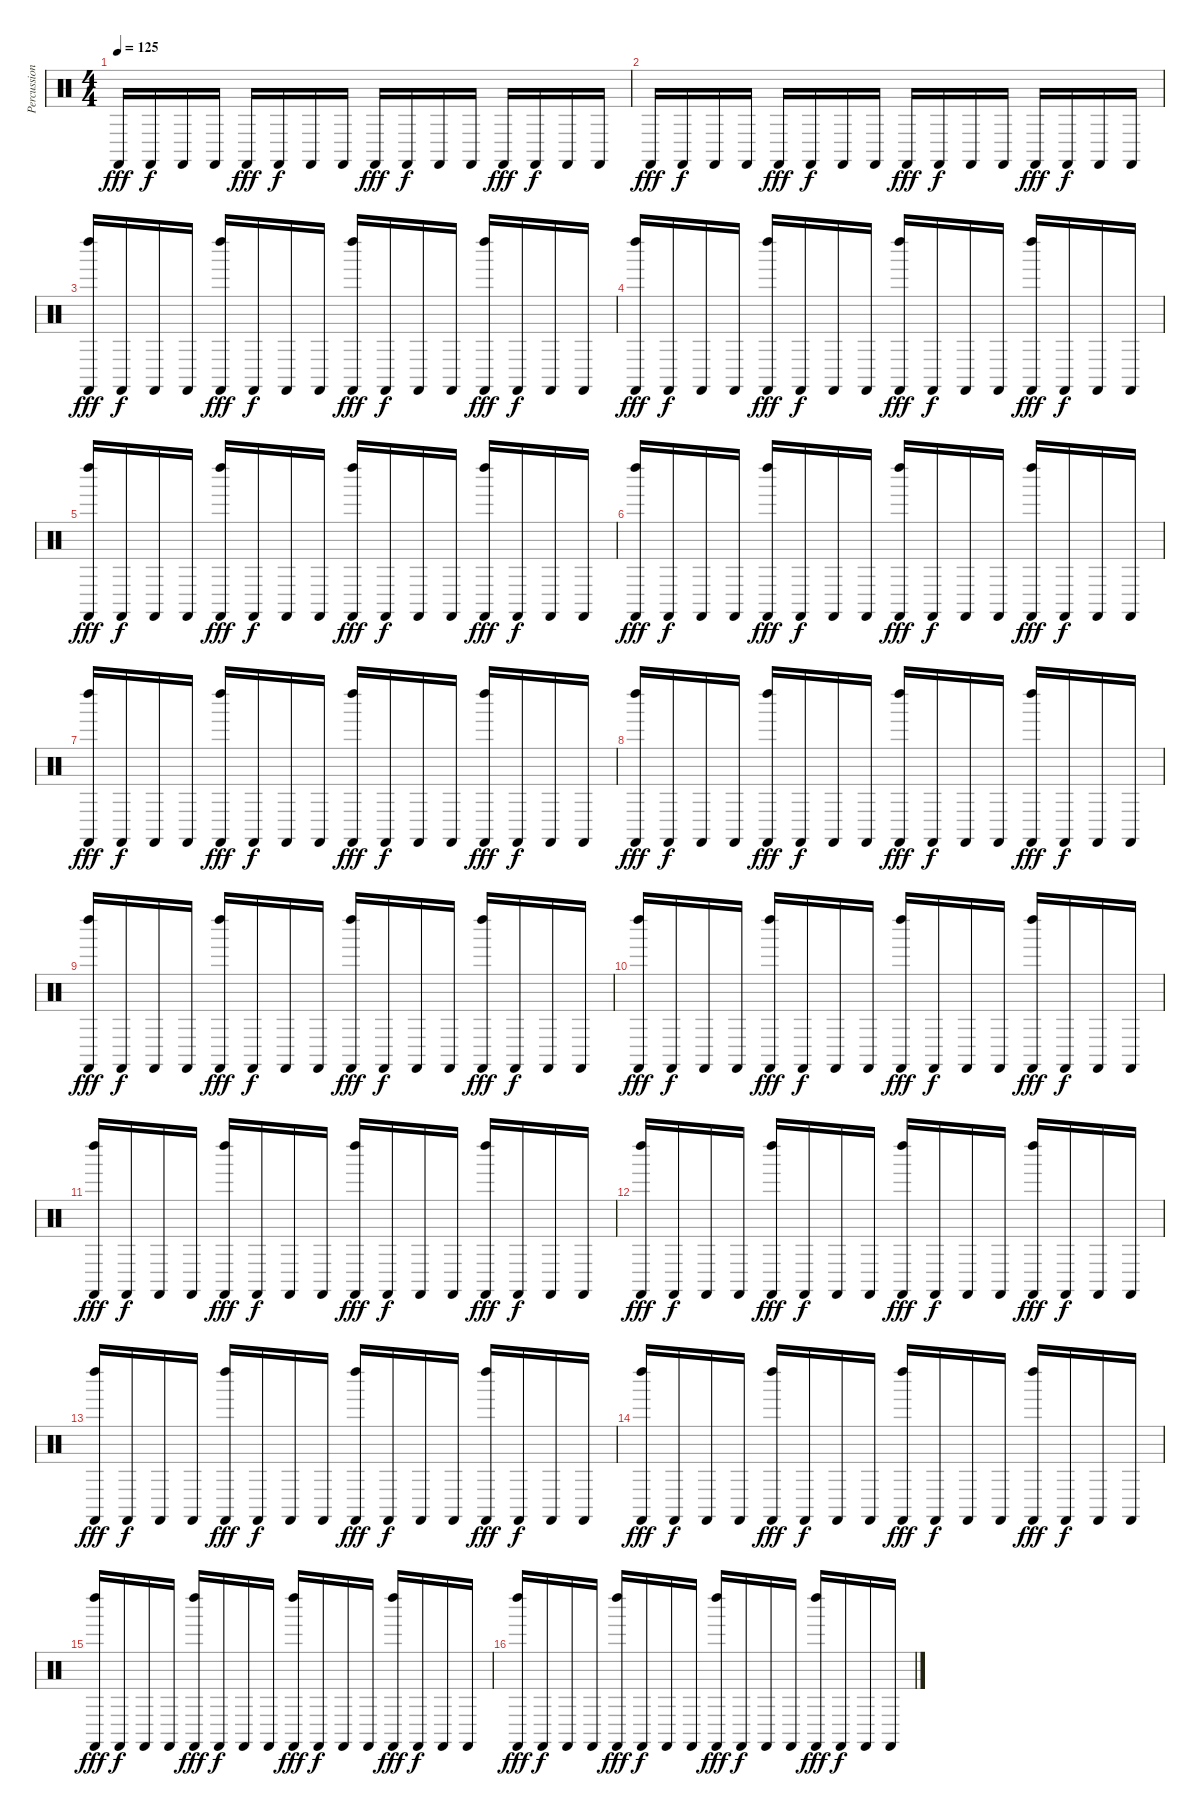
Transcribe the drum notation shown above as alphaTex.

\track ("Percussion Boris" "Percussion") {instrument percussion}
\staff {score}
\articulation defaults
\ts (4 4)
\tempo 125
\clef neutral
\ks c "Castanets (hit)".16{dy fff} "Castanets (hit)".16{dy f} "Castanets (hit)".16 "Castanets (hit)".16 "Castanets (hit)".16{dy fff} "Castanets (hit)".16{dy f} "Castanets (hit)".16 "Castanets (hit)".16 "Castanets (hit)".16{dy fff} "Castanets (hit)".16{dy f} "Castanets (hit)".16 "Castanets (hit)".16 "Castanets (hit)".16{dy fff} "Castanets (hit)".16{dy f} "Castanets (hit)".16 "Castanets (hit)".16
|
"Castanets (hit)".16{dy fff} "Castanets (hit)".16{dy f} "Castanets (hit)".16 "Castanets (hit)".16 "Castanets (hit)".16{dy fff} "Castanets (hit)".16{dy f} "Castanets (hit)".16 "Castanets (hit)".16 "Castanets (hit)".16{dy fff} "Castanets (hit)".16{dy f} "Castanets (hit)".16 "Castanets (hit)".16 "Castanets (hit)".16{dy fff} "Castanets (hit)".16{dy f} "Castanets (hit)".16 "Castanets (hit)".16 |
("Castanets (hit)" "Left Maraca (hit)").16{dy fff} "Castanets (hit)".16{dy f} "Castanets (hit)".16 "Castanets (hit)".16 ("Castanets (hit)" "Left Maraca (hit)").16{dy fff} "Castanets (hit)".16{dy f} "Castanets (hit)".16 "Castanets (hit)".16 ("Castanets (hit)" "Left Maraca (hit)").16{dy fff} "Castanets (hit)".16{dy f} "Castanets (hit)".16 "Castanets (hit)".16 ("Castanets (hit)" "Left Maraca (hit)").16{dy fff} "Castanets (hit)".16{dy f} "Castanets (hit)".16 "Castanets (hit)".16 |
("Castanets (hit)" "Left Maraca (hit)").16{dy fff} "Castanets (hit)".16{dy f} "Castanets (hit)".16 "Castanets (hit)".16 ("Castanets (hit)" "Left Maraca (hit)").16{dy fff} "Castanets (hit)".16{dy f} "Castanets (hit)".16 "Castanets (hit)".16 ("Castanets (hit)" "Left Maraca (hit)").16{dy fff} "Castanets (hit)".16{dy f} "Castanets (hit)".16 "Castanets (hit)".16 ("Castanets (hit)" "Left Maraca (hit)").16{dy fff} "Castanets (hit)".16{dy f} "Castanets (hit)".16 "Castanets (hit)".16 |
("Castanets (hit)" "Left Maraca (hit)").16{dy fff} "Castanets (hit)".16{dy f} "Castanets (hit)".16 "Castanets (hit)".16 ("Castanets (hit)" "Left Maraca (hit)").16{dy fff} "Castanets (hit)".16{dy f} "Castanets (hit)".16 "Castanets (hit)".16 ("Castanets (hit)" "Left Maraca (hit)").16{dy fff} "Castanets (hit)".16{dy f} "Castanets (hit)".16 "Castanets (hit)".16 ("Castanets (hit)" "Left Maraca (hit)").16{dy fff} "Castanets (hit)".16{dy f} "Castanets (hit)".16 "Castanets (hit)".16 |
("Castanets (hit)" "Left Maraca (hit)").16{dy fff} "Castanets (hit)".16{dy f} "Castanets (hit)".16 "Castanets (hit)".16 ("Castanets (hit)" "Left Maraca (hit)").16{dy fff} "Castanets (hit)".16{dy f} "Castanets (hit)".16 "Castanets (hit)".16 ("Castanets (hit)" "Left Maraca (hit)").16{dy fff} "Castanets (hit)".16{dy f} "Castanets (hit)".16 "Castanets (hit)".16 ("Castanets (hit)" "Left Maraca (hit)").16{dy fff} "Castanets (hit)".16{dy f} "Castanets (hit)".16 "Castanets (hit)".16 |
("Castanets (hit)" "Left Maraca (hit)").16{dy fff} "Castanets (hit)".16{dy f} "Castanets (hit)".16 "Castanets (hit)".16 ("Castanets (hit)" "Left Maraca (hit)").16{dy fff} "Castanets (hit)".16{dy f} "Castanets (hit)".16 "Castanets (hit)".16 ("Castanets (hit)" "Left Maraca (hit)").16{dy fff} "Castanets (hit)".16{dy f} "Castanets (hit)".16 "Castanets (hit)".16 ("Castanets (hit)" "Left Maraca (hit)").16{dy fff} "Castanets (hit)".16{dy f} "Castanets (hit)".16 "Castanets (hit)".16 |
("Castanets (hit)" "Left Maraca (hit)").16{dy fff} "Castanets (hit)".16{dy f} "Castanets (hit)".16 "Castanets (hit)".16 ("Castanets (hit)" "Left Maraca (hit)").16{dy fff} "Castanets (hit)".16{dy f} "Castanets (hit)".16 "Castanets (hit)".16 ("Castanets (hit)" "Left Maraca (hit)").16{dy fff} "Castanets (hit)".16{dy f} "Castanets (hit)".16 "Castanets (hit)".16 ("Castanets (hit)" "Left Maraca (hit)").16{dy fff} "Castanets (hit)".16{dy f} "Castanets (hit)".16 "Castanets (hit)".16 |
("Castanets (hit)" "Left Maraca (hit)").16{dy fff} "Castanets (hit)".16{dy f} "Castanets (hit)".16 "Castanets (hit)".16 ("Castanets (hit)" "Left Maraca (hit)").16{dy fff} "Castanets (hit)".16{dy f} "Castanets (hit)".16 "Castanets (hit)".16 ("Castanets (hit)" "Left Maraca (hit)").16{dy fff} "Castanets (hit)".16{dy f} "Castanets (hit)".16 "Castanets (hit)".16 ("Castanets (hit)" "Left Maraca (hit)").16{dy fff} "Castanets (hit)".16{dy f} "Castanets (hit)".16 "Castanets (hit)".16 |
("Castanets (hit)" "Left Maraca (hit)").16{dy fff} "Castanets (hit)".16{dy f} "Castanets (hit)".16 "Castanets (hit)".16 ("Castanets (hit)" "Left Maraca (hit)").16{dy fff} "Castanets (hit)".16{dy f} "Castanets (hit)".16 "Castanets (hit)".16 ("Castanets (hit)" "Left Maraca (hit)").16{dy fff} "Castanets (hit)".16{dy f} "Castanets (hit)".16 "Castanets (hit)".16 ("Castanets (hit)" "Left Maraca (hit)").16{dy fff} "Castanets (hit)".16{dy f} "Castanets (hit)".16 "Castanets (hit)".16 |
("Castanets (hit)" "Left Maraca (hit)").16{dy fff} "Castanets (hit)".16{dy f} "Castanets (hit)".16 "Castanets (hit)".16 ("Castanets (hit)" "Left Maraca (hit)").16{dy fff} "Castanets (hit)".16{dy f} "Castanets (hit)".16 "Castanets (hit)".16 ("Castanets (hit)" "Left Maraca (hit)").16{dy fff} "Castanets (hit)".16{dy f} "Castanets (hit)".16 "Castanets (hit)".16 ("Castanets (hit)" "Left Maraca (hit)").16{dy fff} "Castanets (hit)".16{dy f} "Castanets (hit)".16 "Castanets (hit)".16 |
("Castanets (hit)" "Left Maraca (hit)").16{dy fff} "Castanets (hit)".16{dy f} "Castanets (hit)".16 "Castanets (hit)".16 ("Castanets (hit)" "Left Maraca (hit)").16{dy fff} "Castanets (hit)".16{dy f} "Castanets (hit)".16 "Castanets (hit)".16 ("Castanets (hit)" "Left Maraca (hit)").16{dy fff} "Castanets (hit)".16{dy f} "Castanets (hit)".16 "Castanets (hit)".16 ("Castanets (hit)" "Left Maraca (hit)").16{dy fff} "Castanets (hit)".16{dy f} "Castanets (hit)".16 "Castanets (hit)".16 |
("Castanets (hit)" "Left Maraca (hit)").16{dy fff} "Castanets (hit)".16{dy f} "Castanets (hit)".16 "Castanets (hit)".16 ("Castanets (hit)" "Left Maraca (hit)").16{dy fff} "Castanets (hit)".16{dy f} "Castanets (hit)".16 "Castanets (hit)".16 ("Castanets (hit)" "Left Maraca (hit)").16{dy fff} "Castanets (hit)".16{dy f} "Castanets (hit)".16 "Castanets (hit)".16 ("Castanets (hit)" "Left Maraca (hit)").16{dy fff} "Castanets (hit)".16{dy f} "Castanets (hit)".16 "Castanets (hit)".16 |
("Castanets (hit)" "Left Maraca (hit)").16{dy fff} "Castanets (hit)".16{dy f} "Castanets (hit)".16 "Castanets (hit)".16 ("Castanets (hit)" "Left Maraca (hit)").16{dy fff} "Castanets (hit)".16{dy f} "Castanets (hit)".16 "Castanets (hit)".16 ("Castanets (hit)" "Left Maraca (hit)").16{dy fff} "Castanets (hit)".16{dy f} "Castanets (hit)".16 "Castanets (hit)".16 ("Castanets (hit)" "Left Maraca (hit)").16{dy fff} "Castanets (hit)".16{dy f} "Castanets (hit)".16 "Castanets (hit)".16 |
("Castanets (hit)" "Left Maraca (hit)").16{dy fff} "Castanets (hit)".16{dy f} "Castanets (hit)".16 "Castanets (hit)".16 ("Castanets (hit)" "Left Maraca (hit)").16{dy fff} "Castanets (hit)".16{dy f} "Castanets (hit)".16 "Castanets (hit)".16 ("Castanets (hit)" "Left Maraca (hit)").16{dy fff} "Castanets (hit)".16{dy f} "Castanets (hit)".16 "Castanets (hit)".16 ("Castanets (hit)" "Left Maraca (hit)").16{dy fff} "Castanets (hit)".16{dy f} "Castanets (hit)".16 "Castanets (hit)".16 |
("Castanets (hit)" "Left Maraca (hit)").16{dy fff} "Castanets (hit)".16{dy f} "Castanets (hit)".16 "Castanets (hit)".16 ("Castanets (hit)" "Left Maraca (hit)").16{dy fff} "Castanets (hit)".16{dy f} "Castanets (hit)".16 "Castanets (hit)".16 ("Castanets (hit)" "Left Maraca (hit)").16{dy fff} "Castanets (hit)".16{dy f} "Castanets (hit)".16 "Castanets (hit)".16 ("Castanets (hit)" "Left Maraca (hit)").16{dy fff} "Castanets (hit)".16{dy f} "Castanets (hit)".16 "Castanets (hit)".16
